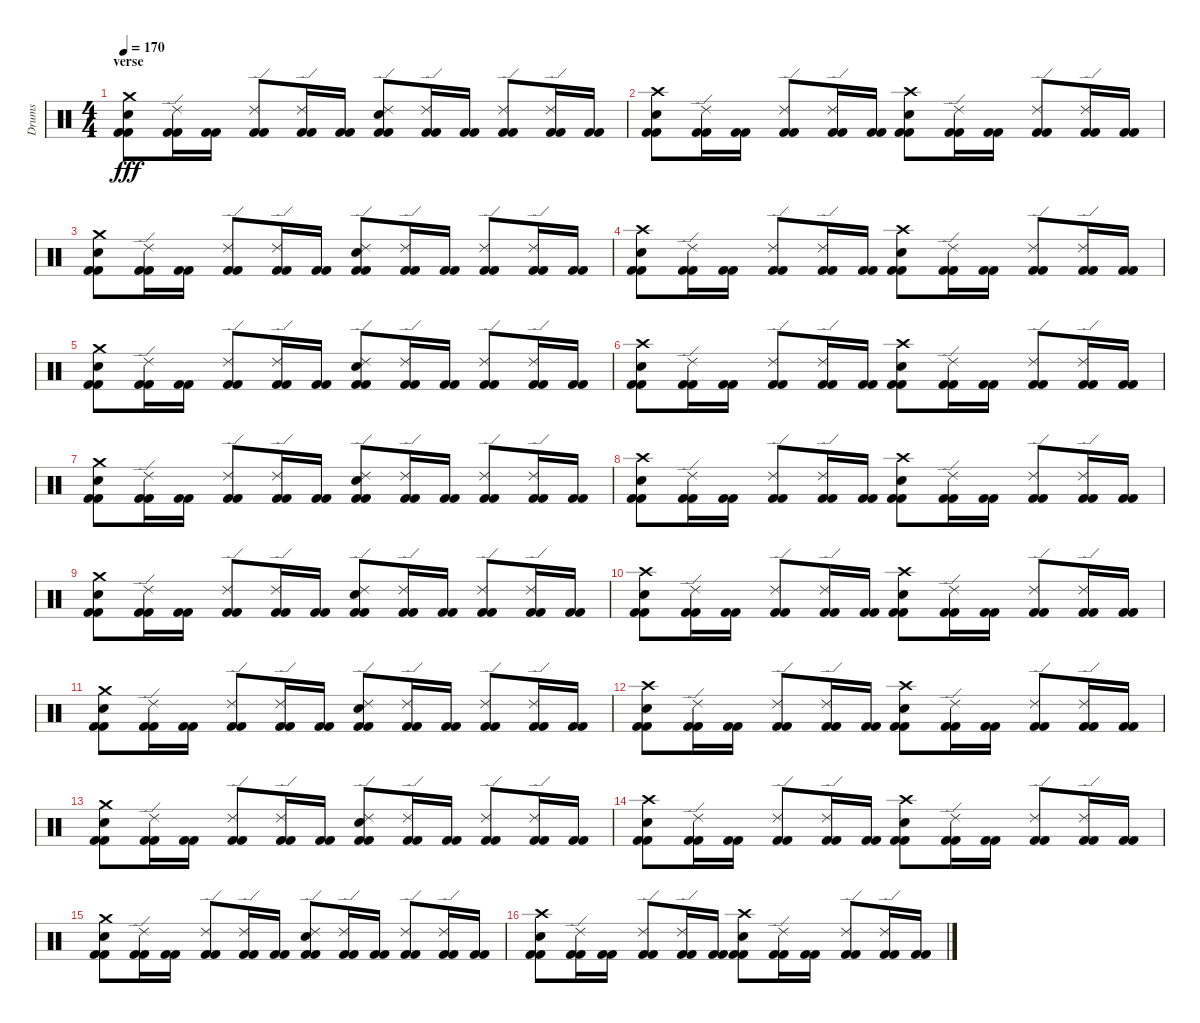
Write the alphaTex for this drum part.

\track ("Drums" "Drums") {instrument percussion}
\staff {score}
\articulation defaults
\ts (4 4)
\section ("" "verse")
\tempo 170
\clef neutral
\ks c
("Crash medium (hit)" "Electric Snare (hit)" "Kick (hit) 2" "Kick (hit) 2").8{dy fff} ("Ride (edge) 2" "Kick (hit) 2" "Kick (hit) 2").16 ("Kick (hit) 2" "Kick (hit) 2").16 ("Ride (edge) 2" "Kick (hit) 2" "Kick (hit) 2").8 ("Ride (edge) 2" "Kick (hit) 2" "Kick (hit) 2").16 ("Kick (hit) 2" "Kick (hit) 2").16 ("Ride (edge) 2" "Electric Snare (hit)" "Kick (hit) 2" "Kick (hit) 2").8 ("Ride (edge) 2" "Kick (hit) 2" "Kick (hit) 2").16 ("Kick (hit) 2" "Kick (hit) 2").16 ("Ride (edge) 2" "Kick (hit) 2" "Kick (hit) 2").8 ("Ride (edge) 2" "Kick (hit) 2" "Kick (hit) 2").16 ("Kick (hit) 2" "Kick (hit) 2").16 |
("Crash high (hit)" "Electric Snare (hit)" "Kick (hit) 2" "Kick (hit) 2").8 ("Ride (edge) 2" "Kick (hit) 2" "Kick (hit) 2").16 ("Kick (hit) 2" "Kick (hit) 2").16 ("Ride (edge) 2" "Kick (hit) 2" "Kick (hit) 2").8 ("Ride (edge) 2" "Kick (hit) 2" "Kick (hit) 2").16 ("Kick (hit) 2" "Kick (hit) 2").16 ("Crash high (hit)" "Electric Snare (hit)" "Kick (hit) 2" "Kick (hit) 2").8 ("Ride (edge) 2" "Kick (hit) 2" "Kick (hit) 2").16 ("Kick (hit) 2" "Kick (hit) 2").16 ("Ride (edge) 2" "Kick (hit) 2" "Kick (hit) 2").8 ("Ride (edge) 2" "Kick (hit) 2" "Kick (hit) 2").16 ("Kick (hit) 2" "Kick (hit) 2").16 |
("Crash medium (hit)" "Electric Snare (hit)" "Kick (hit) 2" "Kick (hit) 2").8 ("Ride (edge) 2" "Kick (hit) 2" "Kick (hit) 2").16 ("Kick (hit) 2" "Kick (hit) 2").16 ("Ride (edge) 2" "Kick (hit) 2" "Kick (hit) 2").8 ("Ride (edge) 2" "Kick (hit) 2" "Kick (hit) 2").16 ("Kick (hit) 2" "Kick (hit) 2").16 ("Ride (edge) 2" "Electric Snare (hit)" "Kick (hit) 2" "Kick (hit) 2").8 ("Ride (edge) 2" "Kick (hit) 2" "Kick (hit) 2").16 ("Kick (hit) 2" "Kick (hit) 2").16 ("Ride (edge) 2" "Kick (hit) 2" "Kick (hit) 2").8 ("Ride (edge) 2" "Kick (hit) 2" "Kick (hit) 2").16 ("Kick (hit) 2" "Kick (hit) 2").16 |
("Crash high (hit)" "Electric Snare (hit)" "Kick (hit) 2" "Kick (hit) 2").8 ("Ride (edge) 2" "Kick (hit) 2" "Kick (hit) 2").16 ("Kick (hit) 2" "Kick (hit) 2").16 ("Ride (edge) 2" "Kick (hit) 2" "Kick (hit) 2").8 ("Ride (edge) 2" "Kick (hit) 2" "Kick (hit) 2").16 ("Kick (hit) 2" "Kick (hit) 2").16 ("Crash high (hit)" "Electric Snare (hit)" "Kick (hit) 2" "Kick (hit) 2").8 ("Ride (edge) 2" "Kick (hit) 2" "Kick (hit) 2").16 ("Kick (hit) 2" "Kick (hit) 2").16 ("Ride (edge) 2" "Kick (hit) 2" "Kick (hit) 2").8 ("Ride (edge) 2" "Kick (hit) 2" "Kick (hit) 2").16 ("Kick (hit) 2" "Kick (hit) 2").16 |
("Crash medium (hit)" "Electric Snare (hit)" "Kick (hit) 2" "Kick (hit) 2").8 ("Ride (edge) 2" "Kick (hit) 2" "Kick (hit) 2").16 ("Kick (hit) 2" "Kick (hit) 2").16 ("Ride (edge) 2" "Kick (hit) 2" "Kick (hit) 2").8 ("Ride (edge) 2" "Kick (hit) 2" "Kick (hit) 2").16 ("Kick (hit) 2" "Kick (hit) 2").16 ("Ride (edge) 2" "Electric Snare (hit)" "Kick (hit) 2" "Kick (hit) 2").8 ("Ride (edge) 2" "Kick (hit) 2" "Kick (hit) 2").16 ("Kick (hit) 2" "Kick (hit) 2").16 ("Ride (edge) 2" "Kick (hit) 2" "Kick (hit) 2").8 ("Ride (edge) 2" "Kick (hit) 2" "Kick (hit) 2").16 ("Kick (hit) 2" "Kick (hit) 2").16 |
("Crash high (hit)" "Electric Snare (hit)" "Kick (hit) 2" "Kick (hit) 2").8 ("Ride (edge) 2" "Kick (hit) 2" "Kick (hit) 2").16 ("Kick (hit) 2" "Kick (hit) 2").16 ("Ride (edge) 2" "Kick (hit) 2" "Kick (hit) 2").8 ("Ride (edge) 2" "Kick (hit) 2" "Kick (hit) 2").16 ("Kick (hit) 2" "Kick (hit) 2").16 ("Crash high (hit)" "Electric Snare (hit)" "Kick (hit) 2" "Kick (hit) 2").8 ("Ride (edge) 2" "Kick (hit) 2" "Kick (hit) 2").16 ("Kick (hit) 2" "Kick (hit) 2").16 ("Ride (edge) 2" "Kick (hit) 2" "Kick (hit) 2").8 ("Ride (edge) 2" "Kick (hit) 2" "Kick (hit) 2").16 ("Kick (hit) 2" "Kick (hit) 2").16 |
("Crash medium (hit)" "Electric Snare (hit)" "Kick (hit) 2" "Kick (hit) 2").8 ("Ride (edge) 2" "Kick (hit) 2" "Kick (hit) 2").16 ("Kick (hit) 2" "Kick (hit) 2").16 ("Ride (edge) 2" "Kick (hit) 2" "Kick (hit) 2").8 ("Ride (edge) 2" "Kick (hit) 2" "Kick (hit) 2").16 ("Kick (hit) 2" "Kick (hit) 2").16 ("Ride (edge) 2" "Electric Snare (hit)" "Kick (hit) 2" "Kick (hit) 2").8 ("Ride (edge) 2" "Kick (hit) 2" "Kick (hit) 2").16 ("Kick (hit) 2" "Kick (hit) 2").16 ("Ride (edge) 2" "Kick (hit) 2" "Kick (hit) 2").8 ("Ride (edge) 2" "Kick (hit) 2" "Kick (hit) 2").16 ("Kick (hit) 2" "Kick (hit) 2").16 |
("Crash high (hit)" "Electric Snare (hit)" "Kick (hit) 2" "Kick (hit) 2").8 ("Ride (edge) 2" "Kick (hit) 2" "Kick (hit) 2").16 ("Kick (hit) 2" "Kick (hit) 2").16 ("Ride (edge) 2" "Kick (hit) 2" "Kick (hit) 2").8 ("Ride (edge) 2" "Kick (hit) 2" "Kick (hit) 2").16 ("Kick (hit) 2" "Kick (hit) 2").16 ("Crash high (hit)" "Electric Snare (hit)" "Kick (hit) 2" "Kick (hit) 2").8 ("Ride (edge) 2" "Kick (hit) 2" "Kick (hit) 2").16 ("Kick (hit) 2" "Kick (hit) 2").16 ("Ride (edge) 2" "Kick (hit) 2" "Kick (hit) 2").8 ("Ride (edge) 2" "Kick (hit) 2" "Kick (hit) 2").16 ("Kick (hit) 2" "Kick (hit) 2").16 |
("Crash medium (hit)" "Electric Snare (hit)" "Kick (hit) 2" "Kick (hit) 2").8 ("Ride (edge) 2" "Kick (hit) 2" "Kick (hit) 2").16 ("Kick (hit) 2" "Kick (hit) 2").16 ("Ride (edge) 2" "Kick (hit) 2" "Kick (hit) 2").8 ("Ride (edge) 2" "Kick (hit) 2" "Kick (hit) 2").16 ("Kick (hit) 2" "Kick (hit) 2").16 ("Ride (edge) 2" "Electric Snare (hit)" "Kick (hit) 2" "Kick (hit) 2").8 ("Ride (edge) 2" "Kick (hit) 2" "Kick (hit) 2").16 ("Kick (hit) 2" "Kick (hit) 2").16 ("Ride (edge) 2" "Kick (hit) 2" "Kick (hit) 2").8 ("Ride (edge) 2" "Kick (hit) 2" "Kick (hit) 2").16 ("Kick (hit) 2" "Kick (hit) 2").16 |
("Crash high (hit)" "Electric Snare (hit)" "Kick (hit) 2" "Kick (hit) 2").8 ("Ride (edge) 2" "Kick (hit) 2" "Kick (hit) 2").16 ("Kick (hit) 2" "Kick (hit) 2").16 ("Ride (edge) 2" "Kick (hit) 2" "Kick (hit) 2").8 ("Ride (edge) 2" "Kick (hit) 2" "Kick (hit) 2").16 ("Kick (hit) 2" "Kick (hit) 2").16 ("Crash high (hit)" "Electric Snare (hit)" "Kick (hit) 2" "Kick (hit) 2").8 ("Ride (edge) 2" "Kick (hit) 2" "Kick (hit) 2").16 ("Kick (hit) 2" "Kick (hit) 2").16 ("Ride (edge) 2" "Kick (hit) 2" "Kick (hit) 2").8 ("Ride (edge) 2" "Kick (hit) 2" "Kick (hit) 2").16 ("Kick (hit) 2" "Kick (hit) 2").16 |
("Crash medium (hit)" "Electric Snare (hit)" "Kick (hit) 2" "Kick (hit) 2").8 ("Ride (edge) 2" "Kick (hit) 2" "Kick (hit) 2").16 ("Kick (hit) 2" "Kick (hit) 2").16 ("Ride (edge) 2" "Kick (hit) 2" "Kick (hit) 2").8 ("Ride (edge) 2" "Kick (hit) 2" "Kick (hit) 2").16 ("Kick (hit) 2" "Kick (hit) 2").16 ("Ride (edge) 2" "Electric Snare (hit)" "Kick (hit) 2" "Kick (hit) 2").8 ("Ride (edge) 2" "Kick (hit) 2" "Kick (hit) 2").16 ("Kick (hit) 2" "Kick (hit) 2").16 ("Ride (edge) 2" "Kick (hit) 2" "Kick (hit) 2").8 ("Ride (edge) 2" "Kick (hit) 2" "Kick (hit) 2").16 ("Kick (hit) 2" "Kick (hit) 2").16 |
("Crash high (hit)" "Electric Snare (hit)" "Kick (hit) 2" "Kick (hit) 2").8 ("Ride (edge) 2" "Kick (hit) 2" "Kick (hit) 2").16 ("Kick (hit) 2" "Kick (hit) 2").16 ("Ride (edge) 2" "Kick (hit) 2" "Kick (hit) 2").8 ("Ride (edge) 2" "Kick (hit) 2" "Kick (hit) 2").16 ("Kick (hit) 2" "Kick (hit) 2").16 ("Crash high (hit)" "Electric Snare (hit)" "Kick (hit) 2" "Kick (hit) 2").8 ("Ride (edge) 2" "Kick (hit) 2" "Kick (hit) 2").16 ("Kick (hit) 2" "Kick (hit) 2").16 ("Ride (edge) 2" "Kick (hit) 2" "Kick (hit) 2").8 ("Ride (edge) 2" "Kick (hit) 2" "Kick (hit) 2").16 ("Kick (hit) 2" "Kick (hit) 2").16 |
("Crash medium (hit)" "Electric Snare (hit)" "Kick (hit) 2" "Kick (hit) 2").8 ("Ride (edge) 2" "Kick (hit) 2" "Kick (hit) 2").16 ("Kick (hit) 2" "Kick (hit) 2").16 ("Ride (edge) 2" "Kick (hit) 2" "Kick (hit) 2").8 ("Ride (edge) 2" "Kick (hit) 2" "Kick (hit) 2").16 ("Kick (hit) 2" "Kick (hit) 2").16 ("Ride (edge) 2" "Electric Snare (hit)" "Kick (hit) 2" "Kick (hit) 2").8 ("Ride (edge) 2" "Kick (hit) 2" "Kick (hit) 2").16 ("Kick (hit) 2" "Kick (hit) 2").16 ("Ride (edge) 2" "Kick (hit) 2" "Kick (hit) 2").8 ("Ride (edge) 2" "Kick (hit) 2" "Kick (hit) 2").16 ("Kick (hit) 2" "Kick (hit) 2").16 |
("Crash high (hit)" "Electric Snare (hit)" "Kick (hit) 2" "Kick (hit) 2").8 ("Ride (edge) 2" "Kick (hit) 2" "Kick (hit) 2").16 ("Kick (hit) 2" "Kick (hit) 2").16 ("Ride (edge) 2" "Kick (hit) 2" "Kick (hit) 2").8 ("Ride (edge) 2" "Kick (hit) 2" "Kick (hit) 2").16 ("Kick (hit) 2" "Kick (hit) 2").16 ("Crash high (hit)" "Electric Snare (hit)" "Kick (hit) 2" "Kick (hit) 2").8 ("Ride (edge) 2" "Kick (hit) 2" "Kick (hit) 2").16 ("Kick (hit) 2" "Kick (hit) 2").16 ("Ride (edge) 2" "Kick (hit) 2" "Kick (hit) 2").8 ("Ride (edge) 2" "Kick (hit) 2" "Kick (hit) 2").16 ("Kick (hit) 2" "Kick (hit) 2").16 |
("Crash medium (hit)" "Electric Snare (hit)" "Kick (hit) 2" "Kick (hit) 2").8 ("Ride (edge) 2" "Kick (hit) 2" "Kick (hit) 2").16 ("Kick (hit) 2" "Kick (hit) 2").16 ("Ride (edge) 2" "Kick (hit) 2" "Kick (hit) 2").8 ("Ride (edge) 2" "Kick (hit) 2" "Kick (hit) 2").16 ("Kick (hit) 2" "Kick (hit) 2").16 ("Ride (edge) 2" "Electric Snare (hit)" "Kick (hit) 2" "Kick (hit) 2").8 ("Ride (edge) 2" "Kick (hit) 2" "Kick (hit) 2").16 ("Kick (hit) 2" "Kick (hit) 2").16 ("Ride (edge) 2" "Kick (hit) 2" "Kick (hit) 2").8 ("Ride (edge) 2" "Kick (hit) 2" "Kick (hit) 2").16 ("Kick (hit) 2" "Kick (hit) 2").16 |
("Crash high (hit)" "Electric Snare (hit)" "Kick (hit) 2" "Kick (hit) 2").8 ("Ride (edge) 2" "Kick (hit) 2" "Kick (hit) 2").16 ("Kick (hit) 2" "Kick (hit) 2").16 ("Ride (edge) 2" "Kick (hit) 2" "Kick (hit) 2").8 ("Ride (edge) 2" "Kick (hit) 2" "Kick (hit) 2").16 ("Kick (hit) 2" "Kick (hit) 2").16 ("Crash high (hit)" "Electric Snare (hit)" "Kick (hit) 2" "Kick (hit) 2").8 ("Ride (edge) 2" "Kick (hit) 2" "Kick (hit) 2").16 ("Kick (hit) 2" "Kick (hit) 2").16 ("Ride (edge) 2" "Kick (hit) 2" "Kick (hit) 2").8 ("Ride (edge) 2" "Kick (hit) 2" "Kick (hit) 2").16 ("Kick (hit) 2" "Kick (hit) 2").16
